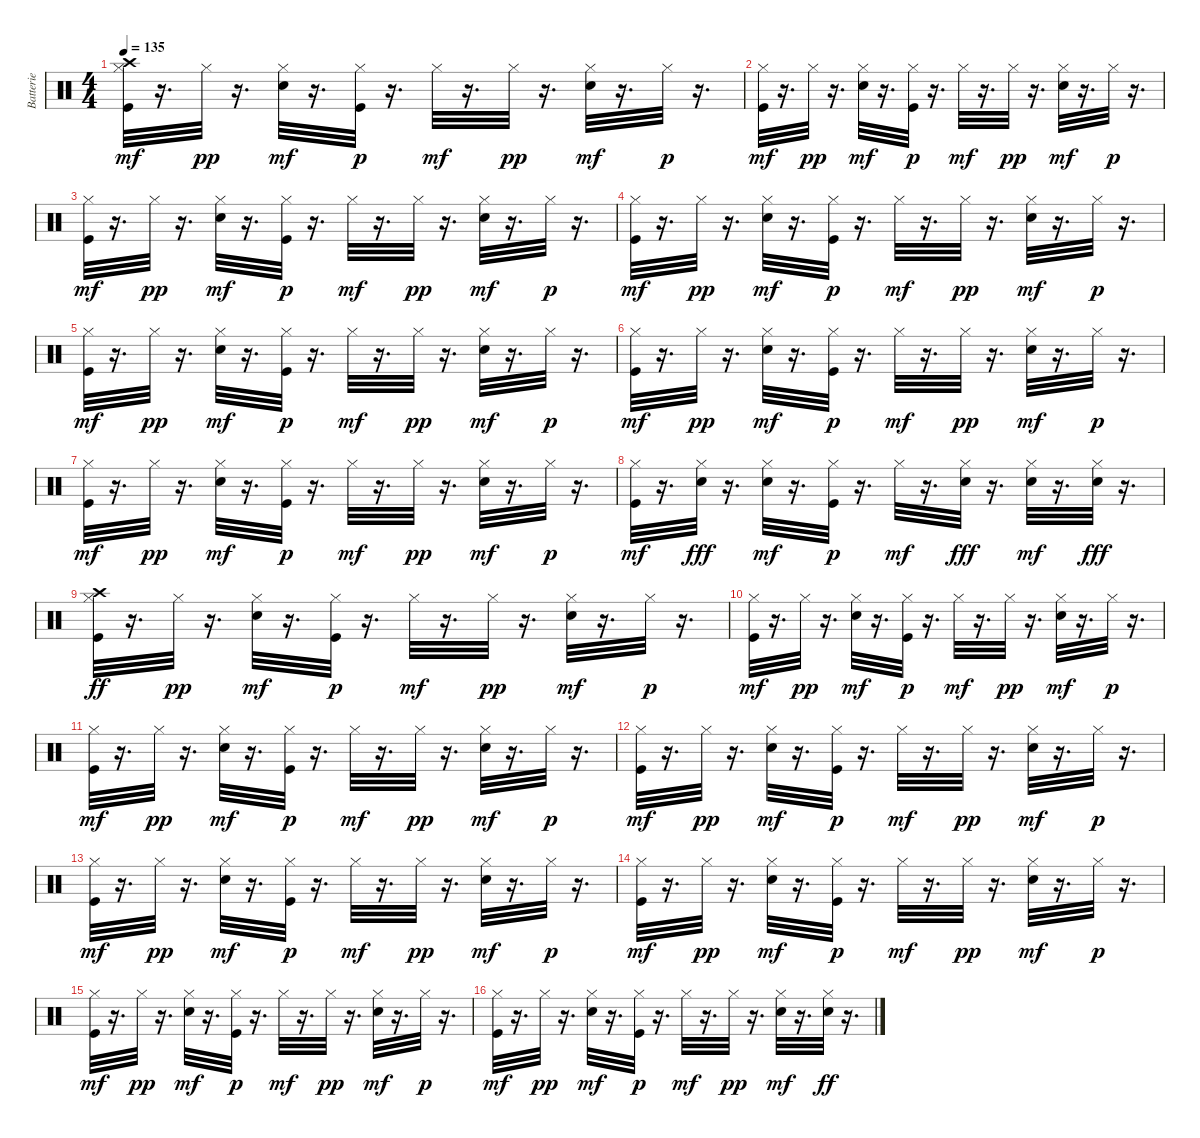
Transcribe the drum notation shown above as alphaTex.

\track ("Batterie" "Batterie") {instrument percussion}
\staff {score}
\articulation defaults
\ts (4 4)
\tempo 135
\clef neutral
\ks c
("Kick (hit)" "Hi-Hat (closed)" "Crash high (hit)").32{dy mf} r.16{d} "Hi-Hat (closed)".32{dy pp} r.16{d} ("Electric Snare (hit)" "Hi-Hat (closed)").32{dy mf} r.16{d} ("Kick (hit)" "Hi-Hat (closed)").32{dy p} r.16{d} "Hi-Hat (closed)".32{dy mf} r.16{d} "Hi-Hat (closed)".32{dy pp} r.16{d} ("Electric Snare (hit)" "Hi-Hat (closed)").32{dy mf} r.16{d} "Hi-Hat (closed)".32{dy p} r.16{d} |
("Kick (hit)" "Hi-Hat (closed)").32{dy mf} r.16{d} "Hi-Hat (closed)".32{dy pp} r.16{d} ("Electric Snare (hit)" "Hi-Hat (closed)").32{dy mf} r.16{d} ("Kick (hit)" "Hi-Hat (closed)").32{dy p} r.16{d} "Hi-Hat (closed)".32{dy mf} r.16{d} "Hi-Hat (closed)".32{dy pp} r.16{d} ("Electric Snare (hit)" "Hi-Hat (closed)").32{dy mf} r.16{d} "Hi-Hat (closed)".32{dy p} r.16{d} |
("Kick (hit)" "Hi-Hat (closed)").32{dy mf} r.16{d} "Hi-Hat (closed)".32{dy pp} r.16{d} ("Electric Snare (hit)" "Hi-Hat (closed)").32{dy mf} r.16{d} ("Kick (hit)" "Hi-Hat (closed)").32{dy p} r.16{d} "Hi-Hat (closed)".32{dy mf} r.16{d} "Hi-Hat (closed)".32{dy pp} r.16{d} ("Electric Snare (hit)" "Hi-Hat (closed)").32{dy mf} r.16{d} "Hi-Hat (closed)".32{dy p} r.16{d} |
("Kick (hit)" "Hi-Hat (closed)").32{dy mf} r.16{d} "Hi-Hat (closed)".32{dy pp} r.16{d} ("Electric Snare (hit)" "Hi-Hat (closed)").32{dy mf} r.16{d} ("Kick (hit)" "Hi-Hat (closed)").32{dy p} r.16{d} "Hi-Hat (closed)".32{dy mf} r.16{d} "Hi-Hat (closed)".32{dy pp} r.16{d} ("Electric Snare (hit)" "Hi-Hat (closed)").32{dy mf} r.16{d} "Hi-Hat (closed)".32{dy p} r.16{d} |
("Kick (hit)" "Hi-Hat (closed)").32{dy mf} r.16{d} "Hi-Hat (closed)".32{dy pp} r.16{d} ("Electric Snare (hit)" "Hi-Hat (closed)").32{dy mf} r.16{d} ("Kick (hit)" "Hi-Hat (closed)").32{dy p} r.16{d} "Hi-Hat (closed)".32{dy mf} r.16{d} "Hi-Hat (closed)".32{dy pp} r.16{d} ("Electric Snare (hit)" "Hi-Hat (closed)").32{dy mf} r.16{d} "Hi-Hat (closed)".32{dy p} r.16{d} |
("Kick (hit)" "Hi-Hat (closed)").32{dy mf} r.16{d} "Hi-Hat (closed)".32{dy pp} r.16{d} ("Electric Snare (hit)" "Hi-Hat (closed)").32{dy mf} r.16{d} ("Kick (hit)" "Hi-Hat (closed)").32{dy p} r.16{d} "Hi-Hat (closed)".32{dy mf} r.16{d} "Hi-Hat (closed)".32{dy pp} r.16{d} ("Electric Snare (hit)" "Hi-Hat (closed)").32{dy mf} r.16{d} "Hi-Hat (closed)".32{dy p} r.16{d} |
("Kick (hit)" "Hi-Hat (closed)").32{dy mf} r.16{d} "Hi-Hat (closed)".32{dy pp} r.16{d} ("Electric Snare (hit)" "Hi-Hat (closed)").32{dy mf} r.16{d} ("Kick (hit)" "Hi-Hat (closed)").32{dy p} r.16{d} "Hi-Hat (closed)".32{dy mf} r.16{d} "Hi-Hat (closed)".32{dy pp} r.16{d} ("Electric Snare (hit)" "Hi-Hat (closed)").32{dy mf} r.16{d} "Hi-Hat (closed)".32{dy p} r.16{d} |
("Kick (hit)" "Hi-Hat (closed)").32{dy mf} r.16{d} ("Hi-Hat (closed)" "Electric Snare (hit)").32{dy fff} r.16{d} ("Electric Snare (hit)" "Hi-Hat (closed)").32{dy mf} r.16{d} ("Kick (hit)" "Hi-Hat (closed)").32{dy p} r.16{d} "Hi-Hat (closed)".32{dy mf} r.16{d} ("Hi-Hat (closed)" "Electric Snare (hit)").32{dy fff} r.16{d} ("Electric Snare (hit)" "Hi-Hat (closed)").32{dy mf} r.16{d} ("Hi-Hat (closed)" "Electric Snare (hit)").32{dy fff} r.16{d} |
("Kick (hit)" "Hi-Hat (closed)" "Crash high (hit)").32{dy ff} r.16{d} "Hi-Hat (closed)".32{dy pp} r.16{d} ("Electric Snare (hit)" "Hi-Hat (closed)").32{dy mf} r.16{d} ("Kick (hit)" "Hi-Hat (closed)").32{dy p} r.16{d} "Hi-Hat (closed)".32{dy mf} r.16{d} "Hi-Hat (closed)".32{dy pp} r.16{d} ("Electric Snare (hit)" "Hi-Hat (closed)").32{dy mf} r.16{d} "Hi-Hat (closed)".32{dy p} r.16{d} |
("Kick (hit)" "Hi-Hat (closed)").32{dy mf} r.16{d} "Hi-Hat (closed)".32{dy pp} r.16{d} ("Electric Snare (hit)" "Hi-Hat (closed)").32{dy mf} r.16{d} ("Kick (hit)" "Hi-Hat (closed)").32{dy p} r.16{d} "Hi-Hat (closed)".32{dy mf} r.16{d} "Hi-Hat (closed)".32{dy pp} r.16{d} ("Electric Snare (hit)" "Hi-Hat (closed)").32{dy mf} r.16{d} "Hi-Hat (closed)".32{dy p} r.16{d} |
("Kick (hit)" "Hi-Hat (closed)").32{dy mf} r.16{d} "Hi-Hat (closed)".32{dy pp} r.16{d} ("Electric Snare (hit)" "Hi-Hat (closed)").32{dy mf} r.16{d} ("Kick (hit)" "Hi-Hat (closed)").32{dy p} r.16{d} "Hi-Hat (closed)".32{dy mf} r.16{d} "Hi-Hat (closed)".32{dy pp} r.16{d} ("Electric Snare (hit)" "Hi-Hat (closed)").32{dy mf} r.16{d} "Hi-Hat (closed)".32{dy p} r.16{d} |
("Kick (hit)" "Hi-Hat (closed)").32{dy mf} r.16{d} "Hi-Hat (closed)".32{dy pp} r.16{d} ("Electric Snare (hit)" "Hi-Hat (closed)").32{dy mf} r.16{d} ("Kick (hit)" "Hi-Hat (closed)").32{dy p} r.16{d} "Hi-Hat (closed)".32{dy mf} r.16{d} "Hi-Hat (closed)".32{dy pp} r.16{d} ("Electric Snare (hit)" "Hi-Hat (closed)").32{dy mf} r.16{d} "Hi-Hat (closed)".32{dy p} r.16{d} |
("Kick (hit)" "Hi-Hat (closed)").32{dy mf} r.16{d} "Hi-Hat (closed)".32{dy pp} r.16{d} ("Electric Snare (hit)" "Hi-Hat (closed)").32{dy mf} r.16{d} ("Kick (hit)" "Hi-Hat (closed)").32{dy p} r.16{d} "Hi-Hat (closed)".32{dy mf} r.16{d} "Hi-Hat (closed)".32{dy pp} r.16{d} ("Electric Snare (hit)" "Hi-Hat (closed)").32{dy mf} r.16{d} "Hi-Hat (closed)".32{dy p} r.16{d} |
("Kick (hit)" "Hi-Hat (closed)").32{dy mf} r.16{d} "Hi-Hat (closed)".32{dy pp} r.16{d} ("Electric Snare (hit)" "Hi-Hat (closed)").32{dy mf} r.16{d} ("Kick (hit)" "Hi-Hat (closed)").32{dy p} r.16{d} "Hi-Hat (closed)".32{dy mf} r.16{d} "Hi-Hat (closed)".32{dy pp} r.16{d} ("Electric Snare (hit)" "Hi-Hat (closed)").32{dy mf} r.16{d} "Hi-Hat (closed)".32{dy p} r.16{d} |
("Kick (hit)" "Hi-Hat (closed)").32{dy mf} r.16{d} "Hi-Hat (closed)".32{dy pp} r.16{d} ("Electric Snare (hit)" "Hi-Hat (closed)").32{dy mf} r.16{d} ("Kick (hit)" "Hi-Hat (closed)").32{dy p} r.16{d} "Hi-Hat (closed)".32{dy mf} r.16{d} "Hi-Hat (closed)".32{dy pp} r.16{d} ("Electric Snare (hit)" "Hi-Hat (closed)").32{dy mf} r.16{d} "Hi-Hat (closed)".32{dy p} r.16{d} |
("Kick (hit)" "Hi-Hat (closed)").32{dy mf} r.16{d} "Hi-Hat (closed)".32{dy pp} r.16{d} ("Electric Snare (hit)" "Hi-Hat (closed)").32{dy mf} r.16{d} ("Kick (hit)" "Hi-Hat (closed)").32{dy p} r.16{d} "Hi-Hat (closed)".32{dy mf} r.16{d} "Hi-Hat (closed)".32{dy pp} r.16{d} ("Electric Snare (hit)" "Hi-Hat (closed)").32{dy mf} r.16{d} ("Hi-Hat (closed)" "Electric Snare (hit)").32{dy ff} r.16{d}
